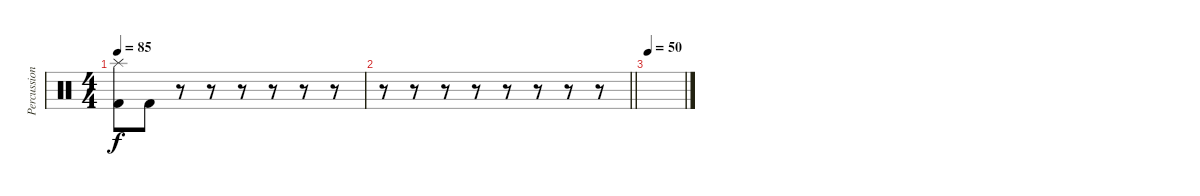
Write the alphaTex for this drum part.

\track ("Percussion" "Percussion") {instrument percussion}
\staff {score}
\articulation defaults
\ts (4 4)
\tempo 85
\clef neutral
\ks c
("Splash (hit)" "Kick (hit) 2").8{dy f} "Kick (hit) 2".8 r.8 r.8 r.8 r.8 r.8 r.8 |
\barLineRight lightlight
r.8 r.8 r.8 r.8 r.8 r.8 r.8 r.8 |
\tempo 50
